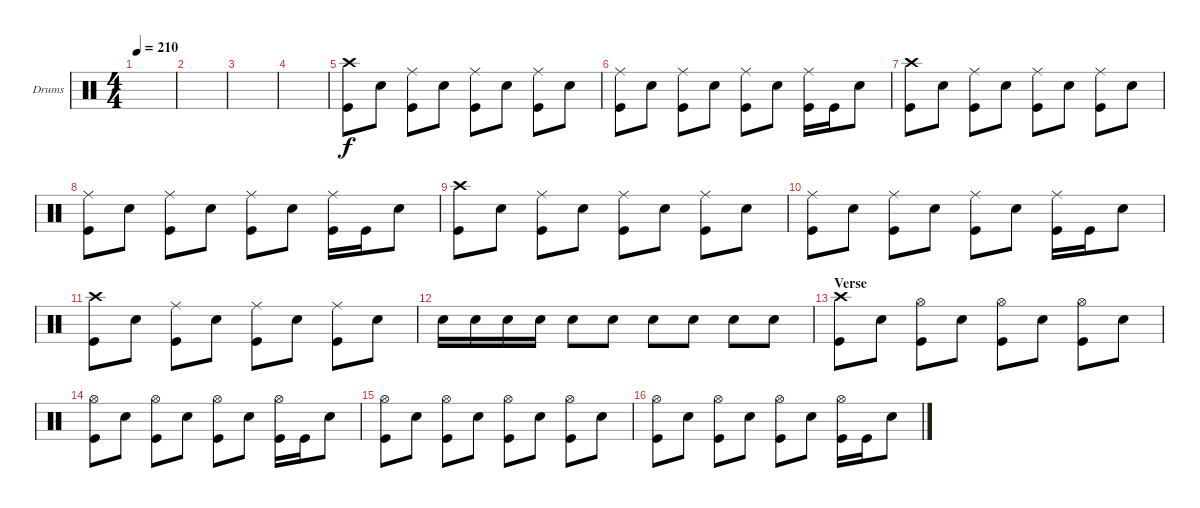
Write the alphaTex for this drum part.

\defaultSystemsLayout 4
\bracketExtendMode groupsimilarinstruments
\firstSystemTrackNameOrientation horizontal
\otherSystemsTrackNameOrientation horizontal
\track ("Markus Freiwald" "Drums") {instrument percussion}
\staff {score}
\articulation defaults
\ts (4 4)
\tempo 210
\clef neutral
\scale
0.641509
\ks c
|
\scale
0.358491 |
\scale
0.5 |
\scale
0.5 |
\scale
0.5 ("Crash high (hit)" "Kick (hit)").8 "Snare (hit) 2".8 ("Ride (middle)" "Kick (hit)").8 "Snare (hit) 2".8 ("Ride (middle)" "Kick (hit)").8 "Snare (hit) 2".8 ("Ride (middle)" "Kick (hit)").8 "Snare (hit) 2".8 |
\scale
0.5 ("Ride (middle)" "Kick (hit)").8 "Snare (hit) 2".8 ("Ride (middle)" "Kick (hit)").8 "Snare (hit) 2".8 ("Ride (middle)" "Kick (hit)").8 "Snare (hit) 2".8 ("Ride (middle)" "Kick (hit)").16 "Kick (hit)".16 "Snare (hit) 2".8 |
\scale
0.5 ("Crash high (hit)" "Kick (hit)").8 "Snare (hit) 2".8 ("Ride (middle)" "Kick (hit)").8 "Snare (hit) 2".8 ("Ride (middle)" "Kick (hit)").8 "Snare (hit) 2".8 ("Ride (middle)" "Kick (hit)").8 "Snare (hit) 2".8 |
\scale
0.5 ("Ride (middle)" "Kick (hit)").8 "Snare (hit) 2".8 ("Ride (middle)" "Kick (hit)").8 "Snare (hit) 2".8 ("Ride (middle)" "Kick (hit)").8 "Snare (hit) 2".8 ("Ride (middle)" "Kick (hit)").16 "Kick (hit)".16 "Snare (hit) 2".8 |
\scale
0.5 ("Crash high (hit)" "Kick (hit)").8 "Snare (hit) 2".8 ("Ride (middle)" "Kick (hit)").8 "Snare (hit) 2".8 ("Ride (middle)" "Kick (hit)").8 "Snare (hit) 2".8 ("Ride (middle)" "Kick (hit)").8 "Snare (hit) 2".8 |
\scale
0.5 ("Ride (middle)" "Kick (hit)").8 "Snare (hit) 2".8 ("Ride (middle)" "Kick (hit)").8 "Snare (hit) 2".8 ("Ride (middle)" "Kick (hit)").8 "Snare (hit) 2".8 ("Ride (middle)" "Kick (hit)").16 "Kick (hit)".16 "Snare (hit) 2".8 |
\scale
0.5 ("Crash high (hit)" "Kick (hit)").8 "Snare (hit) 2".8 ("Ride (middle)" "Kick (hit)").8 "Snare (hit) 2".8 ("Ride (middle)" "Kick (hit)").8 "Snare (hit) 2".8 ("Ride (middle)" "Kick (hit)").8 "Snare (hit) 2".8 |
\scale
0.5 "Snare (hit) 2".16 "Snare (hit) 2".16 "Snare (hit) 2".16 "Snare (hit) 2".16 "Snare (hit) 2".8 "Snare (hit) 2".8 "Snare (hit) 2".8 "Snare (hit) 2".8 "Snare (hit) 2".8 "Snare (hit) 2".8 |
\section ("" "Verse")
\scale
0.5 ("Crash high (hit)" "Kick (hit)").8 "Snare (hit) 2".8 ("Hi-Hat (open)" "Kick (hit)").8 "Snare (hit) 2".8 ("Hi-Hat (open)" "Kick (hit)").8 "Snare (hit) 2".8 ("Hi-Hat (open)" "Kick (hit)").8 "Snare (hit) 2".8 |
\scale
0.5 ("Hi-Hat (open)" "Kick (hit)").8 "Snare (hit) 2".8 ("Hi-Hat (open)" "Kick (hit)").8 "Snare (hit) 2".8 ("Hi-Hat (open)" "Kick (hit)").8 "Snare (hit) 2".8 ("Hi-Hat (open)" "Kick (hit)").16 "Kick (hit)".16 "Snare (hit) 2".8 |
\scale
0.5 ("Kick (hit)" "Hi-Hat (open)").8 "Snare (hit) 2".8 ("Hi-Hat (open)" "Kick (hit)").8 "Snare (hit) 2".8 ("Hi-Hat (open)" "Kick (hit)").8 "Snare (hit) 2".8 ("Hi-Hat (open)" "Kick (hit)").8 "Snare (hit) 2".8 |
\scale
0.5 ("Hi-Hat (open)" "Kick (hit)").8 "Snare (hit) 2".8 ("Hi-Hat (open)" "Kick (hit)").8 "Snare (hit) 2".8 ("Hi-Hat (open)" "Kick (hit)").8 "Snare (hit) 2".8 ("Hi-Hat (open)" "Kick (hit)").16 "Kick (hit)".16 "Snare (hit) 2".8
